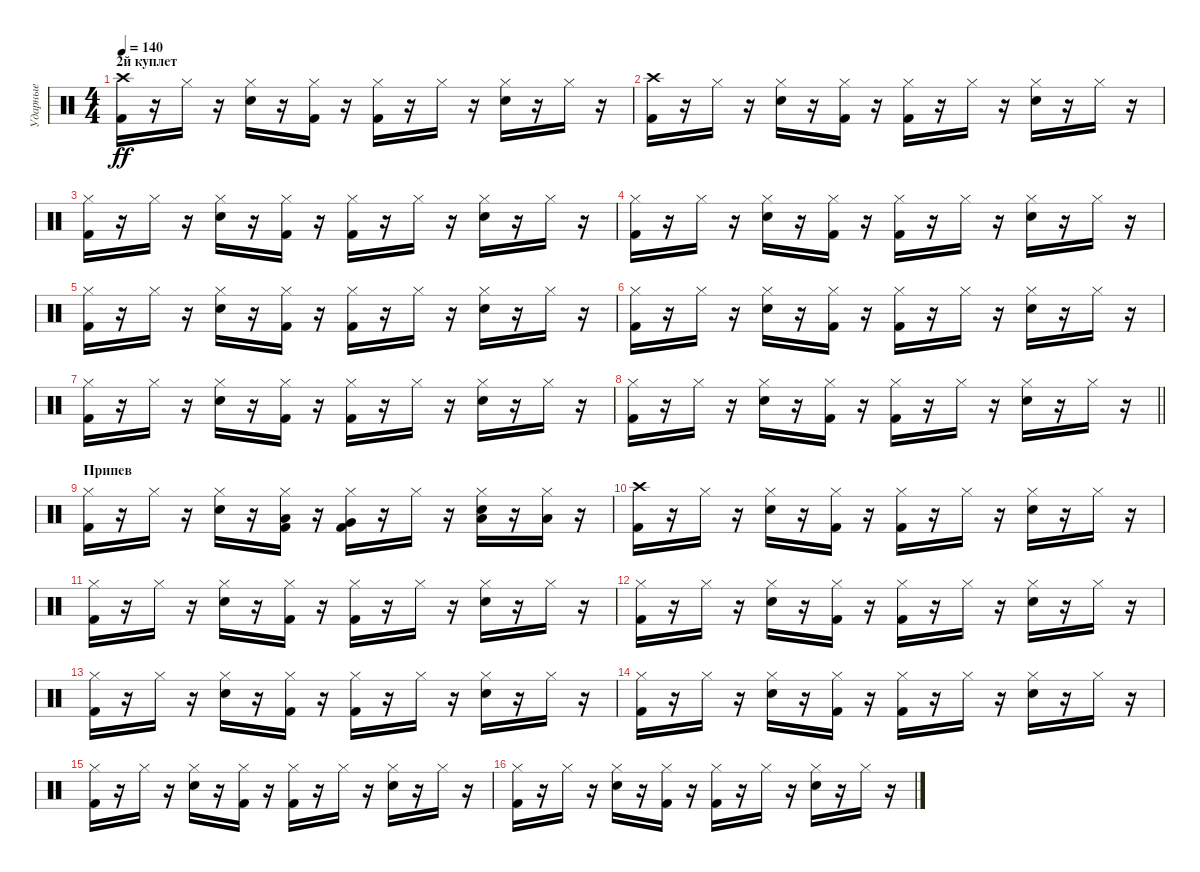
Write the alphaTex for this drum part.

\track ("Ударные" "Ударные") {instrument percussion}
\staff {score}
\articulation defaults
\ts (4 4)
\section ("" "2й куплет")
\tempo 140
\clef neutral
\ks c
("Crash high (hit)" "Kick (hit) 2").16{dy ff} r.16 "Hi-Hat (closed)".16 r.16 ("Hi-Hat (closed)" "Snare (hit) 2").16 r.16 ("Hi-Hat (closed)" "Kick (hit) 2").16 r.16 ("Hi-Hat (closed)" "Kick (hit) 2").16 r.16 "Hi-Hat (closed)".16 r.16 ("Hi-Hat (closed)" "Snare (hit) 2").16 r.16 "Hi-Hat (closed)".16 r.16 |
("Crash high (hit)" "Kick (hit) 2").16 r.16 "Hi-Hat (closed)".16 r.16 ("Hi-Hat (closed)" "Snare (hit) 2").16 r.16 ("Hi-Hat (closed)" "Kick (hit) 2").16 r.16 ("Hi-Hat (closed)" "Kick (hit) 2").16 r.16 "Hi-Hat (closed)".16 r.16 ("Hi-Hat (closed)" "Snare (hit) 2").16 r.16 "Hi-Hat (closed)".16 r.16 |
("Hi-Hat (closed)" "Kick (hit) 2").16 r.16 "Hi-Hat (closed)".16 r.16 ("Hi-Hat (closed)" "Snare (hit) 2").16 r.16 ("Hi-Hat (closed)" "Kick (hit) 2").16 r.16 ("Hi-Hat (closed)" "Kick (hit) 2").16 r.16 "Hi-Hat (closed)".16 r.16 ("Hi-Hat (closed)" "Snare (hit) 2").16 r.16 "Hi-Hat (closed)".16 r.16 |
("Hi-Hat (closed)" "Kick (hit) 2").16 r.16 "Hi-Hat (closed)".16 r.16 ("Hi-Hat (closed)" "Snare (hit) 2").16 r.16 ("Hi-Hat (closed)" "Kick (hit) 2").16 r.16 ("Hi-Hat (closed)" "Kick (hit) 2").16 r.16 "Hi-Hat (closed)".16 r.16 ("Hi-Hat (closed)" "Snare (hit) 2").16 r.16 "Hi-Hat (closed)".16 r.16 |
("Hi-Hat (closed)" "Kick (hit) 2").16 r.16 "Hi-Hat (closed)".16 r.16 ("Hi-Hat (closed)" "Snare (hit) 2").16 r.16 ("Hi-Hat (closed)" "Kick (hit) 2").16 r.16 ("Hi-Hat (closed)" "Kick (hit) 2").16 r.16 "Hi-Hat (closed)".16 r.16 ("Hi-Hat (closed)" "Snare (hit) 2").16 r.16 "Hi-Hat (closed)".16 r.16 |
("Hi-Hat (closed)" "Kick (hit) 2").16 r.16 "Hi-Hat (closed)".16 r.16 ("Hi-Hat (closed)" "Snare (hit) 2").16 r.16 ("Hi-Hat (closed)" "Kick (hit) 2").16 r.16 ("Hi-Hat (closed)" "Kick (hit) 2").16 r.16 "Hi-Hat (closed)".16 r.16 ("Hi-Hat (closed)" "Snare (hit) 2").16 r.16 "Hi-Hat (closed)".16 r.16 |
("Hi-Hat (closed)" "Kick (hit) 2").16 r.16 "Hi-Hat (closed)".16 r.16 ("Hi-Hat (closed)" "Snare (hit) 2").16 r.16 ("Hi-Hat (closed)" "Kick (hit) 2").16 r.16 ("Hi-Hat (closed)" "Kick (hit) 2").16 r.16 "Hi-Hat (closed)".16 r.16 ("Hi-Hat (closed)" "Snare (hit) 2").16 r.16 "Hi-Hat (closed)".16 r.16 |
\barLineRight lightlight
("Hi-Hat (closed)" "Kick (hit) 2").16 r.16 "Hi-Hat (closed)".16 r.16 ("Hi-Hat (closed)" "Snare (hit) 2").16 r.16 ("Hi-Hat (closed)" "Kick (hit) 2").16 r.16 ("Hi-Hat (closed)" "Kick (hit) 2").16 r.16 "Hi-Hat (closed)".16 r.16 ("Hi-Hat (closed)" "Snare (hit) 2").16 r.16 "Hi-Hat (closed)".16 r.16 |
\section ("" "Припев")
("Hi-Hat (closed)" "Kick (hit) 2").16 r.16 "Hi-Hat (closed)".16 r.16 ("Hi-Hat (closed)" "Snare (hit) 2").16 r.16 ("Hi-Hat (closed)" "Kick (hit) 2" "Low Tom (hit)").16 r.16 ("Hi-Hat (closed)" "Kick (hit) 2" "Very Low Tom (hit)").16 r.16 "Hi-Hat (closed)".16 r.16 ("Hi-Hat (closed)" "Snare (hit) 2" "Low Floor Tom (hit)").16 r.16 ("Hi-Hat (closed)" "Low Floor Tom (hit)").16 r.16 |
("Crash high (hit)" "Kick (hit) 2").16 r.16 "Hi-Hat (closed)".16 r.16 ("Hi-Hat (closed)" "Snare (hit) 2").16 r.16 ("Hi-Hat (closed)" "Kick (hit) 2").16 r.16 ("Hi-Hat (closed)" "Kick (hit) 2").16 r.16 "Hi-Hat (closed)".16 r.16 ("Hi-Hat (closed)" "Snare (hit) 2").16 r.16 "Hi-Hat (closed)".16 r.16 |
("Hi-Hat (closed)" "Kick (hit) 2").16 r.16 "Hi-Hat (closed)".16 r.16 ("Hi-Hat (closed)" "Snare (hit) 2").16 r.16 ("Hi-Hat (closed)" "Kick (hit) 2").16 r.16 ("Hi-Hat (closed)" "Kick (hit) 2").16 r.16 "Hi-Hat (closed)".16 r.16 ("Hi-Hat (closed)" "Snare (hit) 2").16 r.16 "Hi-Hat (closed)".16 r.16 |
("Hi-Hat (closed)" "Kick (hit) 2").16 r.16 "Hi-Hat (closed)".16 r.16 ("Hi-Hat (closed)" "Snare (hit) 2").16 r.16 ("Hi-Hat (closed)" "Kick (hit) 2").16 r.16 ("Hi-Hat (closed)" "Kick (hit) 2").16 r.16 "Hi-Hat (closed)".16 r.16 ("Hi-Hat (closed)" "Snare (hit) 2").16 r.16 "Hi-Hat (closed)".16 r.16 |
("Hi-Hat (closed)" "Kick (hit) 2").16 r.16 "Hi-Hat (closed)".16 r.16 ("Hi-Hat (closed)" "Snare (hit) 2").16 r.16 ("Hi-Hat (closed)" "Kick (hit) 2").16 r.16 ("Hi-Hat (closed)" "Kick (hit) 2").16 r.16 "Hi-Hat (closed)".16 r.16 ("Hi-Hat (closed)" "Snare (hit) 2").16 r.16 "Hi-Hat (closed)".16 r.16 |
("Hi-Hat (closed)" "Kick (hit) 2").16 r.16 "Hi-Hat (closed)".16 r.16 ("Hi-Hat (closed)" "Snare (hit) 2").16 r.16 ("Hi-Hat (closed)" "Kick (hit) 2").16 r.16 ("Hi-Hat (closed)" "Kick (hit) 2").16 r.16 "Hi-Hat (closed)".16 r.16 ("Hi-Hat (closed)" "Snare (hit) 2").16 r.16 "Hi-Hat (closed)".16 r.16 |
("Hi-Hat (closed)" "Kick (hit) 2").16 r.16 "Hi-Hat (closed)".16 r.16 ("Hi-Hat (closed)" "Snare (hit) 2").16 r.16 ("Hi-Hat (closed)" "Kick (hit) 2").16 r.16 ("Hi-Hat (closed)" "Kick (hit) 2").16 r.16 "Hi-Hat (closed)".16 r.16 ("Hi-Hat (closed)" "Snare (hit) 2").16 r.16 "Hi-Hat (closed)".16 r.16 |
("Hi-Hat (closed)" "Kick (hit) 2").16 r.16 "Hi-Hat (closed)".16 r.16 ("Hi-Hat (closed)" "Snare (hit) 2").16 r.16 ("Hi-Hat (closed)" "Kick (hit) 2").16 r.16 ("Hi-Hat (closed)" "Kick (hit) 2").16 r.16 "Hi-Hat (closed)".16 r.16 ("Hi-Hat (closed)" "Snare (hit) 2").16 r.16 "Hi-Hat (closed)".16 r.16
